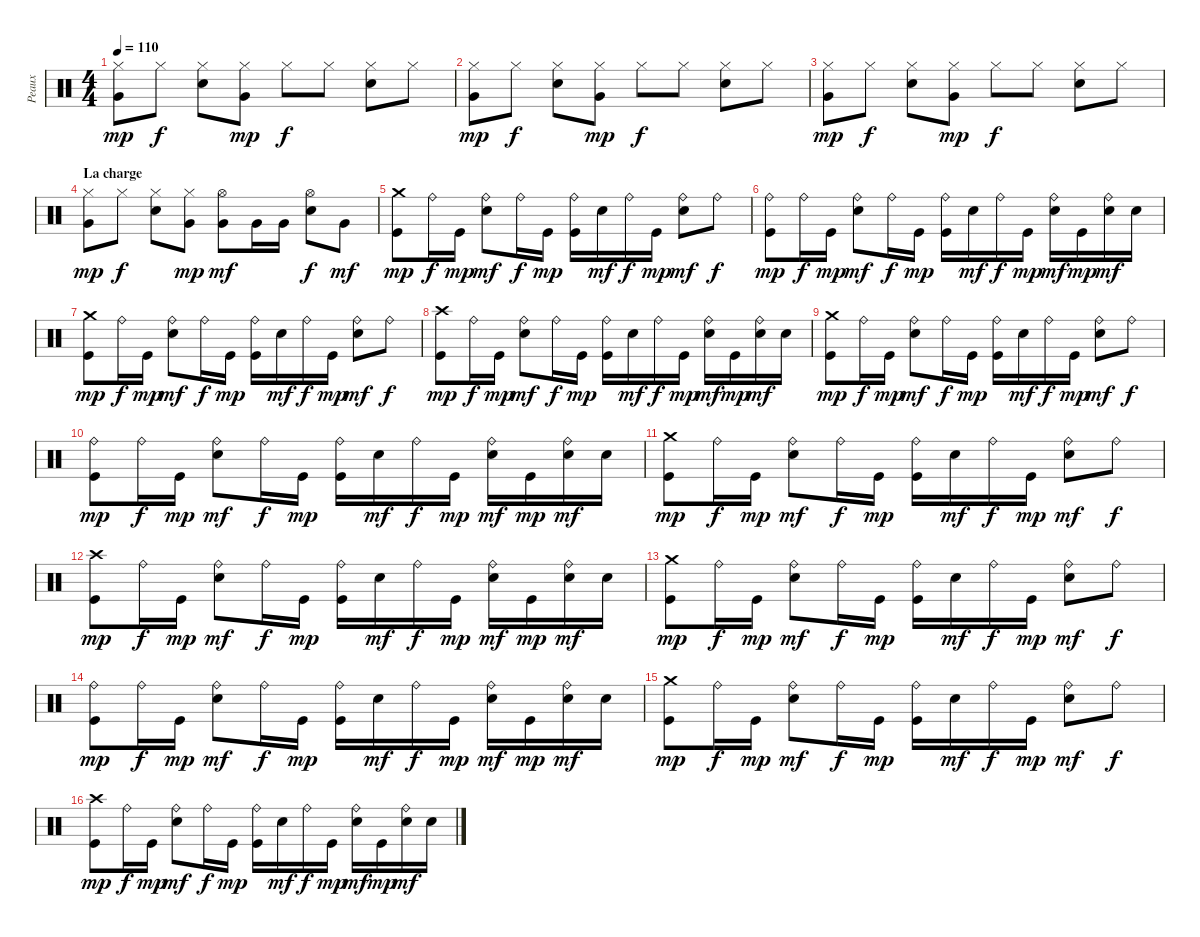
\track ("Peaux" "Peaux") {instrument percussion}
\staff {score}
\articulation defaults
\ts (4 4)
\tempo 110
\clef neutral
\ks c
("Hi-Hat (closed)" "Very Low Tom (hit)").8{dy mp} "Hi-Hat (closed)".8{dy f} ("Hi-Hat (closed)" "Electric Snare (hit)").8 ("Hi-Hat (closed)" "Very Low Tom (hit)").8{dy mp} "Hi-Hat (closed)".8{dy f} "Hi-Hat (closed)".8 ("Hi-Hat (closed)" "Electric Snare (hit)").8 "Hi-Hat (closed)".8 |
("Hi-Hat (closed)" "Very Low Tom (hit)").8{dy mp} "Hi-Hat (closed)".8{dy f} ("Hi-Hat (closed)" "Electric Snare (hit)").8 ("Hi-Hat (closed)" "Very Low Tom (hit)").8{dy mp} "Hi-Hat (closed)".8{dy f} "Hi-Hat (closed)".8 ("Hi-Hat (closed)" "Electric Snare (hit)").8 "Hi-Hat (closed)".8 |
("Hi-Hat (closed)" "Very Low Tom (hit)").8{dy mp} "Hi-Hat (closed)".8{dy f} ("Hi-Hat (closed)" "Electric Snare (hit)").8 ("Hi-Hat (closed)" "Very Low Tom (hit)").8{dy mp} "Hi-Hat (closed)".8{dy f} "Hi-Hat (closed)".8 ("Hi-Hat (closed)" "Electric Snare (hit)").8 "Hi-Hat (closed)".8 |
\section ("" "La charge")
("Hi-Hat (closed)" "Very Low Tom (hit)").8{dy mp} "Hi-Hat (closed)".8{dy f} ("Hi-Hat (closed)" "Electric Snare (hit)").8 ("Hi-Hat (closed)" "Very Low Tom (hit)").8{dy mp} ("Hi-Hat (open)" "Very Low Tom (hit)").8{dy mf} "Very Low Tom (hit)".16 "Very Low Tom (hit)".16 ("Hi-Hat (open)" "Electric Snare (hit)").8{dy f} "Very Low Tom (hit)".8{dy mf} |
("Crash medium (hit)" "Kick (hit)").8{dy mp} "Ride (bell)".16{dy f} "Kick (hit)".16{dy mp} ("Ride (bell)" "Snare (hit) 2").8{dy mf} "Ride (bell)".16{dy f} "Kick (hit)".16{dy mp} ("Ride (bell)" "Kick (hit)").16 "Snare (hit) 2".16{dy mf} "Ride (bell)".16{dy f} "Kick (hit)".16{dy mp} ("Ride (bell)" "Snare (hit) 2").8{dy mf} "Ride (bell)".8{dy f} |
("Ride (bell)" "Kick (hit)").8{dy mp} "Ride (bell)".16{dy f} "Kick (hit)".16{dy mp} ("Ride (bell)" "Snare (hit) 2").8{dy mf} "Ride (bell)".16{dy f} "Kick (hit)".16{dy mp} ("Ride (bell)" "Kick (hit)").16 "Snare (hit) 2".16{dy mf} "Ride (bell)".16{dy f} "Kick (hit)".16{dy mp} ("Ride (bell)" "Snare (hit) 2").16{dy mf} "Kick (hit)".16{dy mp} ("Ride (bell)" "Snare (hit) 2").16{dy mf} "Snare (hit) 2".16 |
("Crash medium (hit)" "Kick (hit)").8{dy mp} "Ride (bell)".16{dy f} "Kick (hit)".16{dy mp} ("Ride (bell)" "Snare (hit) 2").8{dy mf} "Ride (bell)".16{dy f} "Kick (hit)".16{dy mp} ("Ride (bell)" "Kick (hit)").16 "Snare (hit) 2".16{dy mf} "Ride (bell)".16{dy f} "Kick (hit)".16{dy mp} ("Ride (bell)" "Snare (hit) 2").8{dy mf} "Ride (bell)".8{dy f} |
("Crash high (hit)" "Kick (hit)").8{dy mp} "Ride (bell)".16{dy f} "Kick (hit)".16{dy mp} ("Ride (bell)" "Snare (hit) 2").8{dy mf} "Ride (bell)".16{dy f} "Kick (hit)".16{dy mp} ("Ride (bell)" "Kick (hit)").16 "Snare (hit) 2".16{dy mf} "Ride (bell)".16{dy f} "Kick (hit)".16{dy mp} ("Ride (bell)" "Snare (hit) 2").16{dy mf} "Kick (hit)".16{dy mp} ("Ride (bell)" "Snare (hit) 2").16{dy mf} "Snare (hit) 2".16 |
("Crash medium (hit)" "Kick (hit)").8{dy mp} "Ride (bell)".16{dy f} "Kick (hit)".16{dy mp} ("Ride (bell)" "Snare (hit) 2").8{dy mf} "Ride (bell)".16{dy f} "Kick (hit)".16{dy mp} ("Ride (bell)" "Kick (hit)").16 "Snare (hit) 2".16{dy mf} "Ride (bell)".16{dy f} "Kick (hit)".16{dy mp} ("Ride (bell)" "Snare (hit) 2").8{dy mf} "Ride (bell)".8{dy f} |
("Ride (bell)" "Kick (hit)").8{dy mp} "Ride (bell)".16{dy f} "Kick (hit)".16{dy mp} ("Ride (bell)" "Snare (hit) 2").8{dy mf} "Ride (bell)".16{dy f} "Kick (hit)".16{dy mp} ("Ride (bell)" "Kick (hit)").16 "Snare (hit) 2".16{dy mf} "Ride (bell)".16{dy f} "Kick (hit)".16{dy mp} ("Ride (bell)" "Snare (hit) 2").16{dy mf} "Kick (hit)".16{dy mp} ("Ride (bell)" "Snare (hit) 2").16{dy mf} "Snare (hit) 2".16 |
("Crash medium (hit)" "Kick (hit)").8{dy mp} "Ride (bell)".16{dy f} "Kick (hit)".16{dy mp} ("Ride (bell)" "Snare (hit) 2").8{dy mf} "Ride (bell)".16{dy f} "Kick (hit)".16{dy mp} ("Ride (bell)" "Kick (hit)").16 "Snare (hit) 2".16{dy mf} "Ride (bell)".16{dy f} "Kick (hit)".16{dy mp} ("Ride (bell)" "Snare (hit) 2").8{dy mf} "Ride (bell)".8{dy f} |
("Crash high (hit)" "Kick (hit)").8{dy mp} "Ride (bell)".16{dy f} "Kick (hit)".16{dy mp} ("Ride (bell)" "Snare (hit) 2").8{dy mf} "Ride (bell)".16{dy f} "Kick (hit)".16{dy mp} ("Ride (bell)" "Kick (hit)").16 "Snare (hit) 2".16{dy mf} "Ride (bell)".16{dy f} "Kick (hit)".16{dy mp} ("Ride (bell)" "Snare (hit) 2").16{dy mf} "Kick (hit)".16{dy mp} ("Ride (bell)" "Snare (hit) 2").16{dy mf} "Snare (hit) 2".16 |
("Crash medium (hit)" "Kick (hit)").8{dy mp} "Ride (bell)".16{dy f} "Kick (hit)".16{dy mp} ("Ride (bell)" "Snare (hit) 2").8{dy mf} "Ride (bell)".16{dy f} "Kick (hit)".16{dy mp} ("Ride (bell)" "Kick (hit)").16 "Snare (hit) 2".16{dy mf} "Ride (bell)".16{dy f} "Kick (hit)".16{dy mp} ("Ride (bell)" "Snare (hit) 2").8{dy mf} "Ride (bell)".8{dy f} |
("Ride (bell)" "Kick (hit)").8{dy mp} "Ride (bell)".16{dy f} "Kick (hit)".16{dy mp} ("Ride (bell)" "Snare (hit) 2").8{dy mf} "Ride (bell)".16{dy f} "Kick (hit)".16{dy mp} ("Ride (bell)" "Kick (hit)").16 "Snare (hit) 2".16{dy mf} "Ride (bell)".16{dy f} "Kick (hit)".16{dy mp} ("Ride (bell)" "Snare (hit) 2").16{dy mf} "Kick (hit)".16{dy mp} ("Ride (bell)" "Snare (hit) 2").16{dy mf} "Snare (hit) 2".16 |
("Crash medium (hit)" "Kick (hit)").8{dy mp} "Ride (bell)".16{dy f} "Kick (hit)".16{dy mp} ("Ride (bell)" "Snare (hit) 2").8{dy mf} "Ride (bell)".16{dy f} "Kick (hit)".16{dy mp} ("Ride (bell)" "Kick (hit)").16 "Snare (hit) 2".16{dy mf} "Ride (bell)".16{dy f} "Kick (hit)".16{dy mp} ("Ride (bell)" "Snare (hit) 2").8{dy mf} "Ride (bell)".8{dy f} |
("Crash high (hit)" "Kick (hit)").8{dy mp} "Ride (bell)".16{dy f} "Kick (hit)".16{dy mp} ("Ride (bell)" "Snare (hit) 2").8{dy mf} "Ride (bell)".16{dy f} "Kick (hit)".16{dy mp} ("Ride (bell)" "Kick (hit)").16 "Snare (hit) 2".16{dy mf} "Ride (bell)".16{dy f} "Kick (hit)".16{dy mp} ("Ride (bell)" "Snare (hit) 2").16{dy mf} "Kick (hit)".16{dy mp} ("Ride (bell)" "Snare (hit) 2").16{dy mf} "Snare (hit) 2".16
